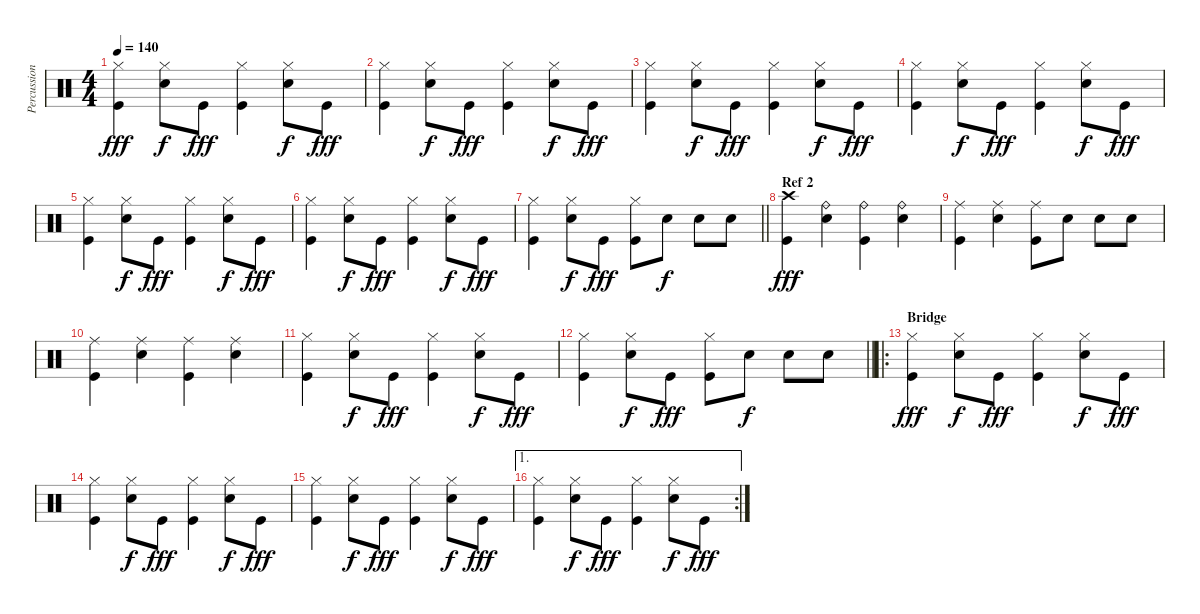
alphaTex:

\track ("Percussion" "Percussion") {instrument percussion}
\staff {score}
\articulation defaults
\ts (4 4)
\tempo 140
\clef neutral
\ks c
("Hi-Hat (closed)" "Kick (hit)").4{dy fff} ("Hi-Hat (closed)" "Snare (hit) 2").8{dy f} "Kick (hit)".8{dy fff} ("Hi-Hat (closed)" "Kick (hit)").4 ("Hi-Hat (closed)" "Snare (hit) 2").8{dy f} "Kick (hit)".8{dy fff} |
("Hi-Hat (closed)" "Kick (hit)").4 ("Hi-Hat (closed)" "Snare (hit) 2").8{dy f} "Kick (hit)".8{dy fff} ("Hi-Hat (closed)" "Kick (hit)").4 ("Hi-Hat (closed)" "Snare (hit) 2").8{dy f} "Kick (hit)".8{dy fff} |
("Hi-Hat (closed)" "Kick (hit)").4 ("Hi-Hat (closed)" "Snare (hit) 2").8{dy f} "Kick (hit)".8{dy fff} ("Hi-Hat (closed)" "Kick (hit)").4 ("Hi-Hat (closed)" "Snare (hit) 2").8{dy f} "Kick (hit)".8{dy fff} |
("Hi-Hat (closed)" "Kick (hit)").4 ("Hi-Hat (closed)" "Snare (hit) 2").8{dy f} "Kick (hit)".8{dy fff} ("Hi-Hat (closed)" "Kick (hit)").4 ("Hi-Hat (closed)" "Snare (hit) 2").8{dy f} "Kick (hit)".8{dy fff} |
("Hi-Hat (closed)" "Kick (hit)").4 ("Hi-Hat (closed)" "Snare (hit) 2").8{dy f} "Kick (hit)".8{dy fff} ("Hi-Hat (closed)" "Kick (hit)").4 ("Hi-Hat (closed)" "Snare (hit) 2").8{dy f} "Kick (hit)".8{dy fff} |
("Hi-Hat (closed)" "Kick (hit)").4 ("Hi-Hat (closed)" "Snare (hit) 2").8{dy f} "Kick (hit)".8{dy fff} ("Hi-Hat (closed)" "Kick (hit)").4 ("Hi-Hat (closed)" "Snare (hit) 2").8{dy f} "Kick (hit)".8{dy fff} |
\barLineRight lightlight
("Hi-Hat (closed)" "Kick (hit)").4 ("Hi-Hat (closed)" "Snare (hit) 2").8{dy f} "Kick (hit)".8{dy fff} ("Hi-Hat (closed)" "Kick (hit)").8 "Snare (hit) 2".8{dy f} "Snare (hit) 2".8 "Snare (hit) 2".8 |
\section ("" "Ref 2")
("Crash high (hit)" "Kick (hit)").4{dy fff} ("Ride (bell)" "Snare (hit) 2").4 ("Ride (bell)" "Kick (hit)").4 ("Ride (bell)" "Snare (hit) 2").4 |
("Ride (middle)" "Kick (hit)").4 ("Ride (middle)" "Snare (hit) 2").4 ("Ride (middle)" "Kick (hit)").8 "Snare (hit) 2".8 "Snare (hit) 2".8 "Snare (hit) 2".8 |
("Ride (middle)" "Kick (hit)").4 ("Ride (middle)" "Snare (hit) 2").4 ("Ride (middle)" "Kick (hit)").4 ("Ride (middle)" "Snare (hit) 2").4 |
("Hi-Hat (closed)" "Kick (hit)").4 ("Hi-Hat (closed)" "Snare (hit) 2").8{dy f} "Kick (hit)".8{dy fff} ("Hi-Hat (closed)" "Kick (hit)").4 ("Hi-Hat (closed)" "Snare (hit) 2").8{dy f} "Kick (hit)".8{dy fff} |
\barLineRight lightlight
("Hi-Hat (closed)" "Kick (hit)").4 ("Hi-Hat (closed)" "Snare (hit) 2").8{dy f} "Kick (hit)".8{dy fff} ("Hi-Hat (closed)" "Kick (hit)").8 "Snare (hit) 2".8{dy f} "Snare (hit) 2".8 "Snare (hit) 2".8 |
\ro
\section ("" "Bridge")
("Hi-Hat (closed)" "Kick (hit)").4{dy fff} ("Hi-Hat (closed)" "Snare (hit) 2").8{dy f} "Kick (hit)".8{dy fff} ("Hi-Hat (closed)" "Kick (hit)").4 ("Hi-Hat (closed)" "Snare (hit) 2").8{dy f} "Kick (hit)".8{dy fff} |
("Hi-Hat (closed)" "Kick (hit)").4 ("Hi-Hat (closed)" "Snare (hit) 2").8{dy f} "Kick (hit)".8{dy fff} ("Hi-Hat (closed)" "Kick (hit)").4 ("Hi-Hat (closed)" "Snare (hit) 2").8{dy f} "Kick (hit)".8{dy fff} |
("Hi-Hat (closed)" "Kick (hit)").4 ("Hi-Hat (closed)" "Snare (hit) 2").8{dy f} "Kick (hit)".8{dy fff} ("Hi-Hat (closed)" "Kick (hit)").4 ("Hi-Hat (closed)" "Snare (hit) 2").8{dy f} "Kick (hit)".8{dy fff} |
\ae 1
\rc 2
("Hi-Hat (closed)" "Kick (hit)").4 ("Hi-Hat (closed)" "Snare (hit) 2").8{dy f} "Kick (hit)".8{dy fff} ("Hi-Hat (closed)" "Kick (hit)").4 ("Hi-Hat (closed)" "Snare (hit) 2").8{dy f} "Kick (hit)".8{dy fff}
